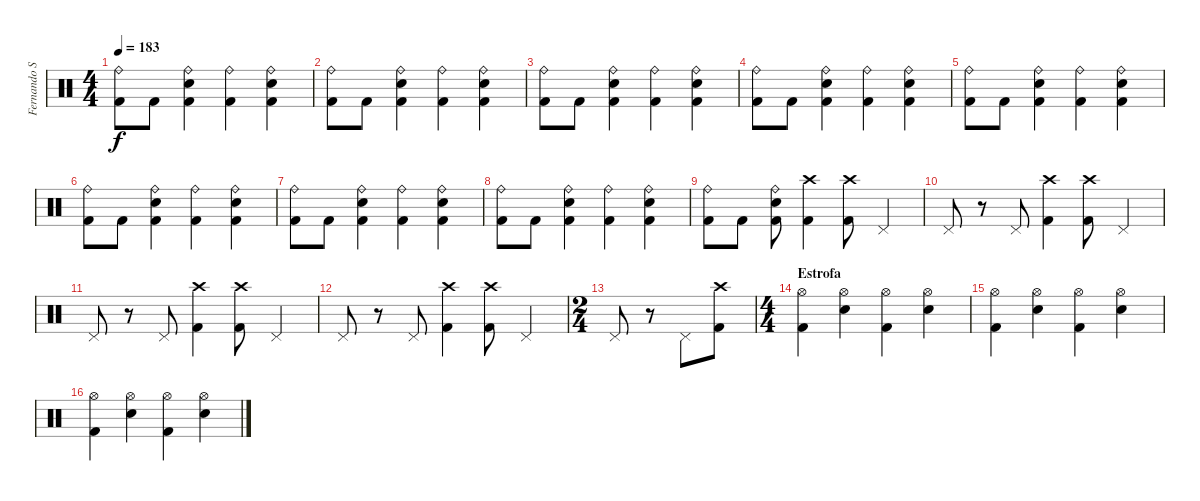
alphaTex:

\track ("Fernando Scarcella" "Fernando S") {instrument percussion}
\staff {score}
\articulation defaults
\ts (4 4)
\tempo 183
\clef neutral
\ks c
("Ride (bell)" "Kick (hit) 2").8{dy f} "Kick (hit) 2".8 ("Ride (bell)" "Kick (hit) 2" "Snare (hit) 2").4 ("Ride (bell)" "Kick (hit) 2").4 ("Ride (bell)" "Kick (hit) 2" "Snare (hit) 2").4 |
("Ride (bell)" "Kick (hit) 2").8 "Kick (hit) 2".8 ("Ride (bell)" "Kick (hit) 2" "Snare (hit) 2").4 ("Ride (bell)" "Kick (hit) 2").4 ("Ride (bell)" "Kick (hit) 2" "Snare (hit) 2").4 |
("Ride (bell)" "Kick (hit) 2").8 "Kick (hit) 2".8 ("Ride (bell)" "Kick (hit) 2" "Snare (hit) 2").4 ("Ride (bell)" "Kick (hit) 2").4 ("Ride (bell)" "Kick (hit) 2" "Snare (hit) 2").4 |
("Ride (bell)" "Kick (hit) 2").8 "Kick (hit) 2".8 ("Ride (bell)" "Kick (hit) 2" "Snare (hit) 2").4 ("Ride (bell)" "Kick (hit) 2").4 ("Ride (bell)" "Kick (hit) 2" "Snare (hit) 2").4 |
("Ride (bell)" "Kick (hit) 2").8 "Kick (hit) 2".8 ("Ride (bell)" "Kick (hit) 2" "Snare (hit) 2").4 ("Ride (bell)" "Kick (hit) 2").4 ("Ride (bell)" "Kick (hit) 2" "Snare (hit) 2").4 |
("Ride (bell)" "Kick (hit) 2").8 "Kick (hit) 2".8 ("Ride (bell)" "Kick (hit) 2" "Snare (hit) 2").4 ("Ride (bell)" "Kick (hit) 2").4 ("Ride (bell)" "Kick (hit) 2" "Snare (hit) 2").4 |
("Ride (bell)" "Kick (hit) 2").8 "Kick (hit) 2".8 ("Ride (bell)" "Kick (hit) 2" "Snare (hit) 2").4 ("Ride (bell)" "Kick (hit) 2").4 ("Ride (bell)" "Kick (hit) 2" "Snare (hit) 2").4 |
("Ride (bell)" "Kick (hit) 2").8 "Kick (hit) 2".8 ("Ride (bell)" "Kick (hit) 2" "Snare (hit) 2").4 ("Ride (bell)" "Kick (hit) 2").4 ("Ride (bell)" "Kick (hit) 2" "Snare (hit) 2").4 |
("Ride (bell)" "Kick (hit) 2").8 "Kick (hit) 2".8 ("Ride (bell)" "Kick (hit) 2" "Snare (hit) 2").8 ("Crash high (hit)" "Kick (hit) 2").4 ("Crash high (hit)" "Kick (hit) 2").8 "Pedal Hi-Hat (hit)".4 |
"Pedal Hi-Hat (hit)".8 r.8 "Pedal Hi-Hat (hit)".8 ("Crash high (hit)" "Kick (hit) 2").4 ("Crash high (hit)" "Kick (hit) 2").8 "Pedal Hi-Hat (hit)".4 |
"Pedal Hi-Hat (hit)".8 r.8 "Pedal Hi-Hat (hit)".8 ("Crash high (hit)" "Kick (hit) 2").4 ("Crash high (hit)" "Kick (hit) 2").8 "Pedal Hi-Hat (hit)".4 |
"Pedal Hi-Hat (hit)".8 r.8 "Pedal Hi-Hat (hit)".8 ("Crash high (hit)" "Kick (hit) 2").4 ("Crash high (hit)" "Kick (hit) 2").8 "Pedal Hi-Hat (hit)".4 |
\ts (2 4)
"Pedal Hi-Hat (hit)".8 r.8 "Pedal Hi-Hat (hit)".8 ("Crash high (hit)" "Kick (hit) 2").8 |
\ts (4 4)
\section ("" "Estrofa")
("Hi-Hat (open)" "Kick (hit) 2").4 ("Hi-Hat (open)" "Snare (hit) 2").4 ("Hi-Hat (open)" "Kick (hit) 2").4 ("Hi-Hat (open)" "Snare (hit) 2").4 |
("Hi-Hat (open)" "Kick (hit) 2").4 ("Hi-Hat (open)" "Snare (hit) 2").4 ("Hi-Hat (open)" "Kick (hit) 2").4 ("Hi-Hat (open)" "Snare (hit) 2").4 |
("Hi-Hat (open)" "Kick (hit) 2").4 ("Hi-Hat (open)" "Snare (hit) 2").4 ("Hi-Hat (open)" "Kick (hit) 2").4 ("Hi-Hat (open)" "Snare (hit) 2").4
